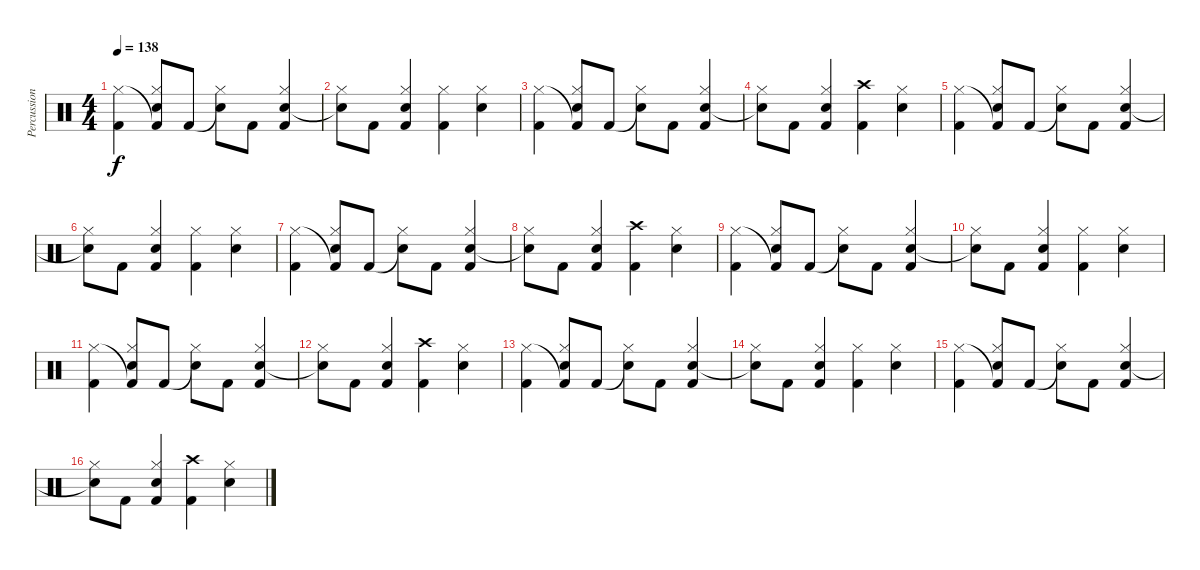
\track ("Percussion" "Percussion") {instrument percussion}
\staff {score}
\articulation defaults
\ts (4 4)
\tempo 138
\clef neutral
\ks c
("Kick (hit) 2" "Hi-Hat (closed)").4{dy f} ("Snare (hit) 2" "Kick (hit) 2"{t} "Hi-Hat (closed)").8 "Kick (hit) 2".8 ("Snare (hit)"{t} "Hi-Hat (closed)").8 "Kick (hit) 2".8 ("Snare (hit) 2" "Kick (hit) 2" "Hi-Hat (closed)").4 |
("Snare (hit)"{t} "Hi-Hat (closed)").8 "Kick (hit) 2".8 ("Snare (hit) 2" "Kick (hit) 2" "Hi-Hat (closed)").4 ("Kick (hit) 2" "Hi-Hat (closed)").4 ("Snare (hit) 2" "Hi-Hat (closed)").4 |
("Kick (hit) 2" "Hi-Hat (closed)").4 ("Snare (hit) 2" "Kick (hit) 2"{t} "Hi-Hat (closed)").8 "Kick (hit) 2".8 ("Snare (hit)"{t} "Hi-Hat (closed)").8 "Kick (hit) 2".8 ("Snare (hit) 2" "Kick (hit) 2" "Hi-Hat (closed)").4 |
("Snare (hit)"{t} "Hi-Hat (closed)").8 "Kick (hit) 2".8 ("Snare (hit) 2" "Kick (hit) 2" "Hi-Hat (closed)").4 ("Kick (hit) 2" "Crash high (hit)").4 ("Snare (hit) 2" "Hi-Hat (closed)").4 |
("Kick (hit) 2" "Hi-Hat (closed)").4 ("Snare (hit) 2" "Kick (hit) 2"{t} "Hi-Hat (closed)").8 "Kick (hit) 2".8 ("Snare (hit)"{t} "Hi-Hat (closed)").8 "Kick (hit) 2".8 ("Snare (hit) 2" "Kick (hit) 2" "Hi-Hat (closed)").4 |
("Snare (hit)"{t} "Hi-Hat (closed)").8 "Kick (hit) 2".8 ("Snare (hit) 2" "Kick (hit) 2" "Hi-Hat (closed)").4 ("Kick (hit) 2" "Hi-Hat (closed)").4 ("Snare (hit) 2" "Hi-Hat (closed)").4 |
("Kick (hit) 2" "Hi-Hat (closed)").4 ("Snare (hit) 2" "Kick (hit) 2"{t} "Hi-Hat (closed)").8 "Kick (hit) 2".8 ("Snare (hit)"{t} "Hi-Hat (closed)").8 "Kick (hit) 2".8 ("Snare (hit) 2" "Kick (hit) 2" "Hi-Hat (closed)").4 |
("Snare (hit)"{t} "Hi-Hat (closed)").8 "Kick (hit) 2".8 ("Snare (hit) 2" "Kick (hit) 2" "Hi-Hat (closed)").4 ("Kick (hit) 2" "Crash high (hit)").4 ("Snare (hit) 2" "Hi-Hat (closed)").4 |
("Kick (hit) 2" "Hi-Hat (closed)").4 ("Snare (hit) 2" "Kick (hit) 2"{t} "Hi-Hat (closed)").8 "Kick (hit) 2".8 ("Snare (hit)"{t} "Hi-Hat (closed)").8 "Kick (hit) 2".8 ("Snare (hit) 2" "Kick (hit) 2" "Hi-Hat (closed)").4 |
("Snare (hit)"{t} "Hi-Hat (closed)").8 "Kick (hit) 2".8 ("Snare (hit) 2" "Kick (hit) 2" "Hi-Hat (closed)").4 ("Kick (hit) 2" "Hi-Hat (closed)").4 ("Snare (hit) 2" "Hi-Hat (closed)").4 |
("Kick (hit) 2" "Hi-Hat (closed)").4 ("Snare (hit) 2" "Kick (hit) 2"{t} "Hi-Hat (closed)").8 "Kick (hit) 2".8 ("Snare (hit)"{t} "Hi-Hat (closed)").8 "Kick (hit) 2".8 ("Snare (hit) 2" "Kick (hit) 2" "Hi-Hat (closed)").4 |
("Snare (hit)"{t} "Hi-Hat (closed)").8 "Kick (hit) 2".8 ("Snare (hit) 2" "Kick (hit) 2" "Hi-Hat (closed)").4 ("Kick (hit) 2" "Crash high (hit)").4 ("Snare (hit) 2" "Hi-Hat (closed)").4 |
("Kick (hit) 2" "Hi-Hat (closed)").4 ("Snare (hit) 2" "Kick (hit) 2"{t} "Hi-Hat (closed)").8 "Kick (hit) 2".8 ("Snare (hit)"{t} "Hi-Hat (closed)").8 "Kick (hit) 2".8 ("Snare (hit) 2" "Kick (hit) 2" "Hi-Hat (closed)").4 |
("Snare (hit)"{t} "Hi-Hat (closed)").8 "Kick (hit) 2".8 ("Snare (hit) 2" "Kick (hit) 2" "Hi-Hat (closed)").4 ("Kick (hit) 2" "Hi-Hat (closed)").4 ("Snare (hit) 2" "Hi-Hat (closed)").4 |
("Kick (hit) 2" "Hi-Hat (closed)").4 ("Snare (hit) 2" "Kick (hit) 2"{t} "Hi-Hat (closed)").8 "Kick (hit) 2".8 ("Snare (hit)"{t} "Hi-Hat (closed)").8 "Kick (hit) 2".8 ("Snare (hit) 2" "Kick (hit) 2" "Hi-Hat (closed)").4 |
("Snare (hit)"{t} "Hi-Hat (closed)").8 "Kick (hit) 2".8 ("Snare (hit) 2" "Kick (hit) 2" "Hi-Hat (closed)").4 ("Kick (hit) 2" "Crash high (hit)").4 ("Snare (hit) 2" "Hi-Hat (closed)").4
